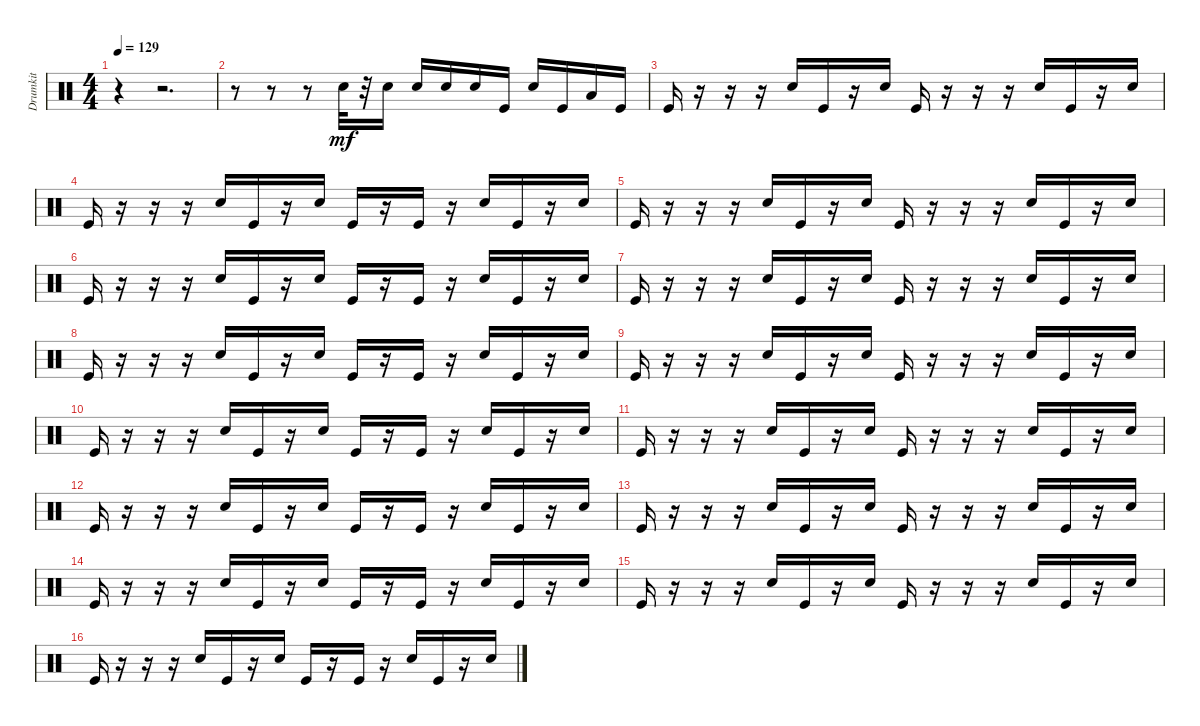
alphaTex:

\track ("Drumkit" "Drumkit") {instrument percussion}
\staff {score}
\articulation defaults
\ts (4 4)
\tempo 129
\clef neutral
\ks c
r.4{dy mf} r.2{d} |
r.8 r.8 r.8 "Snare (hit) 2".32 r.32 "Snare (hit) 2".16 "Snare (hit) 2".16 "Snare (hit) 2".16 "Snare (hit) 2".16 "Kick (hit)".16 "Snare (hit) 2".16 "Kick (hit)".16 "Low Floor Tom (hit)".16 "Kick (hit)".16 |
"Kick (hit)".16 r.16 r.16 r.16 "Snare (hit) 2".16 "Kick (hit)".16 r.16 "Snare (hit) 2".16 "Kick (hit)".16 r.16 r.16 r.16 "Snare (hit) 2".16 "Kick (hit)".16 r.16 "Snare (hit) 2".16 |
"Kick (hit)".16 r.16 r.16 r.16 "Snare (hit) 2".16 "Kick (hit)".16 r.16 "Snare (hit) 2".16 "Kick (hit)".16 r.16 "Kick (hit)".16 r.16 "Snare (hit) 2".16 "Kick (hit)".16 r.16 "Snare (hit) 2".16 |
"Kick (hit)".16 r.16 r.16 r.16 "Snare (hit) 2".16 "Kick (hit)".16 r.16 "Snare (hit) 2".16 "Kick (hit)".16 r.16 r.16 r.16 "Snare (hit) 2".16 "Kick (hit)".16 r.16 "Snare (hit) 2".16 |
"Kick (hit)".16 r.16 r.16 r.16 "Snare (hit) 2".16 "Kick (hit)".16 r.16 "Snare (hit) 2".16 "Kick (hit)".16 r.16 "Kick (hit)".16 r.16 "Snare (hit) 2".16 "Kick (hit)".16 r.16 "Snare (hit) 2".16 |
"Kick (hit)".16 r.16 r.16 r.16 "Snare (hit) 2".16 "Kick (hit)".16 r.16 "Snare (hit) 2".16 "Kick (hit)".16 r.16 r.16 r.16 "Snare (hit) 2".16 "Kick (hit)".16 r.16 "Snare (hit) 2".16 |
"Kick (hit)".16 r.16 r.16 r.16 "Snare (hit) 2".16 "Kick (hit)".16 r.16 "Snare (hit) 2".16 "Kick (hit)".16 r.16 "Kick (hit)".16 r.16 "Snare (hit) 2".16 "Kick (hit)".16 r.16 "Snare (hit) 2".16 |
"Kick (hit)".16 r.16 r.16 r.16 "Snare (hit) 2".16 "Kick (hit)".16 r.16 "Snare (hit) 2".16 "Kick (hit)".16 r.16 r.16 r.16 "Snare (hit) 2".16 "Kick (hit)".16 r.16 "Snare (hit) 2".16 |
"Kick (hit)".16 r.16 r.16 r.16 "Snare (hit) 2".16 "Kick (hit)".16 r.16 "Snare (hit) 2".16 "Kick (hit)".16 r.16 "Kick (hit)".16 r.16 "Snare (hit) 2".16 "Kick (hit)".16 r.16 "Snare (hit) 2".16 |
"Kick (hit)".16 r.16 r.16 r.16 "Snare (hit) 2".16 "Kick (hit)".16 r.16 "Snare (hit) 2".16 "Kick (hit)".16 r.16 r.16 r.16 "Snare (hit) 2".16 "Kick (hit)".16 r.16 "Snare (hit) 2".16 |
"Kick (hit)".16 r.16 r.16 r.16 "Snare (hit) 2".16 "Kick (hit)".16 r.16 "Snare (hit) 2".16 "Kick (hit)".16 r.16 "Kick (hit)".16 r.16 "Snare (hit) 2".16 "Kick (hit)".16 r.16 "Snare (hit) 2".16 |
"Kick (hit)".16 r.16 r.16 r.16 "Snare (hit) 2".16 "Kick (hit)".16 r.16 "Snare (hit) 2".16 "Kick (hit)".16 r.16 r.16 r.16 "Snare (hit) 2".16 "Kick (hit)".16 r.16 "Snare (hit) 2".16 |
"Kick (hit)".16 r.16 r.16 r.16 "Snare (hit) 2".16 "Kick (hit)".16 r.16 "Snare (hit) 2".16 "Kick (hit)".16 r.16 "Kick (hit)".16 r.16 "Snare (hit) 2".16 "Kick (hit)".16 r.16 "Snare (hit) 2".16 |
"Kick (hit)".16 r.16 r.16 r.16 "Snare (hit) 2".16 "Kick (hit)".16 r.16 "Snare (hit) 2".16 "Kick (hit)".16 r.16 r.16 r.16 "Snare (hit) 2".16 "Kick (hit)".16 r.16 "Snare (hit) 2".16 |
"Kick (hit)".16 r.16 r.16 r.16 "Snare (hit) 2".16 "Kick (hit)".16 r.16 "Snare (hit) 2".16 "Kick (hit)".16 r.16 "Kick (hit)".16 r.16 "Snare (hit) 2".16 "Kick (hit)".16 r.16 "Snare (hit) 2".16
